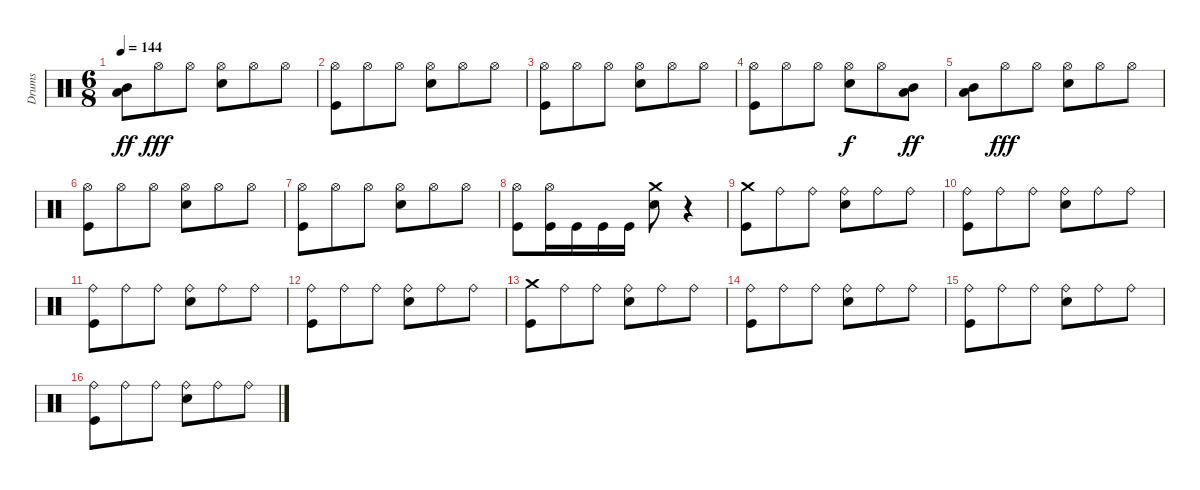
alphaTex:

\track ("Drums" "Drums") {instrument percussion}
\staff {score}
\articulation defaults
\ts (6 8)
\tempo 144
\clef neutral
\ks c
("Low Tom (hit)" "Mid Tom (hit)").8{dy ff} "Hi-Hat (open)".8{dy fff} "Hi-Hat (open)".8 ("Hi-Hat (open)" "Snare (hit) 2").8 "Hi-Hat (open)".8 "Hi-Hat (open)".8 |
("Hi-Hat (open)" "Kick (hit)").8 "Hi-Hat (open)".8 "Hi-Hat (open)".8 ("Hi-Hat (open)" "Snare (hit) 2").8 "Hi-Hat (open)".8 "Hi-Hat (open)".8 |
("Hi-Hat (open)" "Kick (hit)").8 "Hi-Hat (open)".8 "Hi-Hat (open)".8 ("Hi-Hat (open)" "Snare (hit) 2").8 "Hi-Hat (open)".8 "Hi-Hat (open)".8 |
("Hi-Hat (open)" "Kick (hit)").8 "Hi-Hat (open)".8 "Hi-Hat (open)".8 ("Hi-Hat (open)" "Snare (hit) 2").8{dy f} "Hi-Hat (open)".8 ("Low Tom (hit)" "Mid Tom (hit)").8{dy ff} |
("Low Tom (hit)" "Mid Tom (hit)").8 "Hi-Hat (open)".8{dy fff} "Hi-Hat (open)".8 ("Hi-Hat (open)" "Snare (hit) 2").8 "Hi-Hat (open)".8 "Hi-Hat (open)".8 |
("Hi-Hat (open)" "Kick (hit)").8 "Hi-Hat (open)".8 "Hi-Hat (open)".8 ("Hi-Hat (open)" "Snare (hit) 2").8 "Hi-Hat (open)".8 "Hi-Hat (open)".8 |
("Hi-Hat (open)" "Kick (hit)").8 "Hi-Hat (open)".8 "Hi-Hat (open)".8 ("Hi-Hat (open)" "Snare (hit) 2").8 "Hi-Hat (open)".8 "Hi-Hat (open)".8 |
("Hi-Hat (open)" "Kick (hit)").8 ("Hi-Hat (open)" "Kick (hit)").16 "Kick (hit)".16 "Kick (hit)".16 "Kick (hit)".16 ("Crash medium (hit)" "Snare (hit) 2").8 r.4 |
("Crash medium (hit)" "Kick (hit)").8 "Ride (bell)".8 "Ride (bell)".8 ("Ride (bell)" "Snare (hit) 2").8 "Ride (bell)".8 "Ride (bell)".8 |
("Ride (bell)" "Kick (hit)").8 "Ride (bell)".8 "Ride (bell)".8 ("Ride (bell)" "Snare (hit) 2").8 "Ride (bell)".8 "Ride (bell)".8 |
("Ride (bell)" "Kick (hit)").8 "Ride (bell)".8 "Ride (bell)".8 ("Ride (bell)" "Snare (hit) 2").8 "Ride (bell)".8 "Ride (bell)".8 |
("Ride (bell)" "Kick (hit)").8 "Ride (bell)".8 "Ride (bell)".8 ("Ride (bell)" "Snare (hit) 2").8 "Ride (bell)".8 "Ride (bell)".8 |
("Crash medium (hit)" "Kick (hit)").8 "Ride (bell)".8 "Ride (bell)".8 ("Ride (bell)" "Snare (hit) 2").8 "Ride (bell)".8 "Ride (bell)".8 |
("Ride (bell)" "Kick (hit)").8 "Ride (bell)".8 "Ride (bell)".8 ("Ride (bell)" "Snare (hit) 2").8 "Ride (bell)".8 "Ride (bell)".8 |
("Ride (bell)" "Kick (hit)").8 "Ride (bell)".8 "Ride (bell)".8 ("Ride (bell)" "Snare (hit) 2").8 "Ride (bell)".8 "Ride (bell)".8 |
("Ride (bell)" "Kick (hit)").8 "Ride (bell)".8 "Ride (bell)".8 ("Ride (bell)" "Snare (hit) 2").8 "Ride (bell)".8 "Ride (bell)".8
